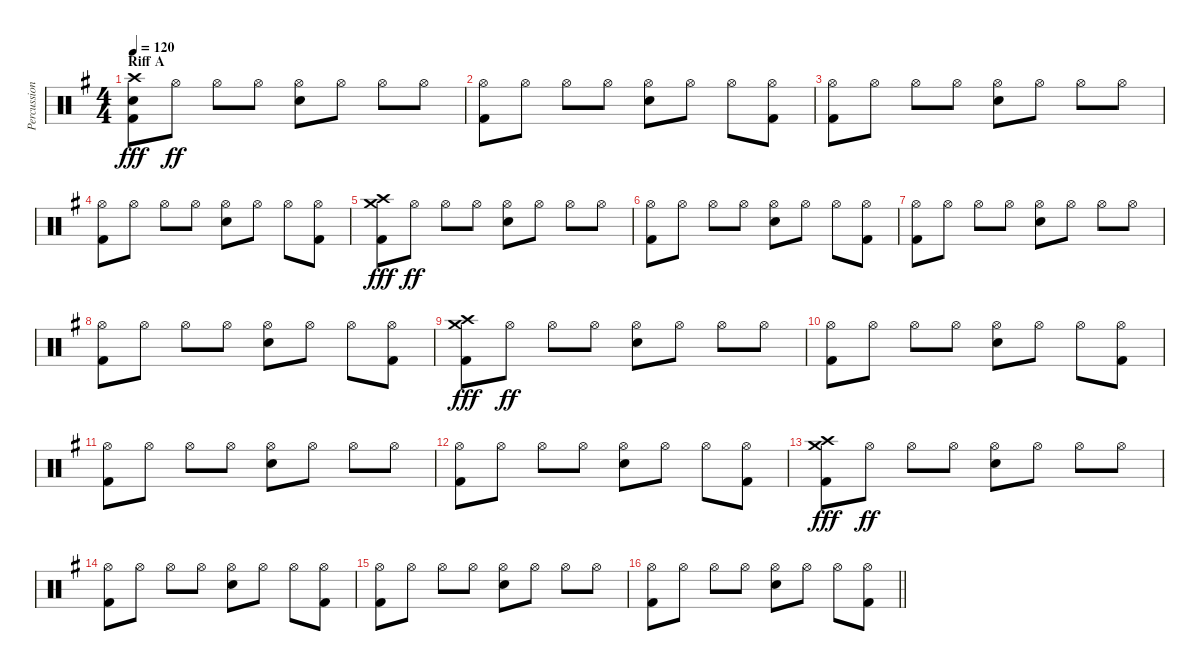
\track ("Percussion" "Percussion") {instrument percussion}
\staff {score}
\articulation defaults
\ts (4 4)
\section ("" "Riff A")
\tempo 120
\clef neutral
\ks eminor
("Kick (hit) 2" "Crash high (hit)" "Snare (hit)").8{dy fff} "Hi-Hat (open)".8{dy ff} "Hi-Hat (open)".8 "Hi-Hat (open)".8 ("Snare (hit) 2" "Hi-Hat (open)").8 "Hi-Hat (open)".8 "Hi-Hat (open)".8 "Hi-Hat (open)".8 |
("Kick (hit) 2" "Hi-Hat (open)").8 "Hi-Hat (open)".8 "Hi-Hat (open)".8 "Hi-Hat (open)".8 ("Snare (hit) 2" "Hi-Hat (open)").8 "Hi-Hat (open)".8 "Hi-Hat (open)".8 ("Kick (hit) 2" "Hi-Hat (open)").8 |
("Kick (hit) 2" "Hi-Hat (open)").8 "Hi-Hat (open)".8 "Hi-Hat (open)".8 "Hi-Hat (open)".8 ("Snare (hit) 2" "Hi-Hat (open)").8 "Hi-Hat (open)".8 "Hi-Hat (open)".8 "Hi-Hat (open)".8 |
("Kick (hit) 2" "Hi-Hat (open)").8 "Hi-Hat (open)".8 "Hi-Hat (open)".8 "Hi-Hat (open)".8 ("Snare (hit) 2" "Hi-Hat (open)").8 "Hi-Hat (open)".8 "Hi-Hat (open)".8 ("Kick (hit) 2" "Hi-Hat (open)").8 |
("Kick (hit) 2" "Crash high (hit)" "Crash medium (hit)").8{dy fff} "Hi-Hat (open)".8{dy ff} "Hi-Hat (open)".8 "Hi-Hat (open)".8 ("Snare (hit) 2" "Hi-Hat (open)").8 "Hi-Hat (open)".8 "Hi-Hat (open)".8 "Hi-Hat (open)".8 |
("Kick (hit) 2" "Hi-Hat (open)").8 "Hi-Hat (open)".8 "Hi-Hat (open)".8 "Hi-Hat (open)".8 ("Snare (hit) 2" "Hi-Hat (open)").8 "Hi-Hat (open)".8 "Hi-Hat (open)".8 ("Kick (hit) 2" "Hi-Hat (open)").8 |
("Kick (hit) 2" "Hi-Hat (open)").8 "Hi-Hat (open)".8 "Hi-Hat (open)".8 "Hi-Hat (open)".8 ("Snare (hit) 2" "Hi-Hat (open)").8 "Hi-Hat (open)".8 "Hi-Hat (open)".8 "Hi-Hat (open)".8 |
("Kick (hit) 2" "Hi-Hat (open)").8 "Hi-Hat (open)".8 "Hi-Hat (open)".8 "Hi-Hat (open)".8 ("Snare (hit) 2" "Hi-Hat (open)").8 "Hi-Hat (open)".8 "Hi-Hat (open)".8 ("Kick (hit) 2" "Hi-Hat (open)").8 |
("Kick (hit) 2" "Crash high (hit)" "Crash medium (hit)").8{dy fff} "Hi-Hat (open)".8{dy ff} "Hi-Hat (open)".8 "Hi-Hat (open)".8 ("Snare (hit) 2" "Hi-Hat (open)").8 "Hi-Hat (open)".8 "Hi-Hat (open)".8 "Hi-Hat (open)".8 |
("Kick (hit) 2" "Hi-Hat (open)").8 "Hi-Hat (open)".8 "Hi-Hat (open)".8 "Hi-Hat (open)".8 ("Snare (hit) 2" "Hi-Hat (open)").8 "Hi-Hat (open)".8 "Hi-Hat (open)".8 ("Kick (hit) 2" "Hi-Hat (open)").8 |
("Kick (hit) 2" "Hi-Hat (open)").8 "Hi-Hat (open)".8 "Hi-Hat (open)".8 "Hi-Hat (open)".8 ("Snare (hit) 2" "Hi-Hat (open)").8 "Hi-Hat (open)".8 "Hi-Hat (open)".8 "Hi-Hat (open)".8 |
("Kick (hit) 2" "Hi-Hat (open)").8 "Hi-Hat (open)".8 "Hi-Hat (open)".8 "Hi-Hat (open)".8 ("Snare (hit) 2" "Hi-Hat (open)").8 "Hi-Hat (open)".8 "Hi-Hat (open)".8 ("Kick (hit) 2" "Hi-Hat (open)").8 |
("Kick (hit) 2" "Crash high (hit)" "Crash medium (hit)").8{dy fff} "Hi-Hat (open)".8{dy ff} "Hi-Hat (open)".8 "Hi-Hat (open)".8 ("Snare (hit) 2" "Hi-Hat (open)").8 "Hi-Hat (open)".8 "Hi-Hat (open)".8 "Hi-Hat (open)".8 |
("Kick (hit) 2" "Hi-Hat (open)").8 "Hi-Hat (open)".8 "Hi-Hat (open)".8 "Hi-Hat (open)".8 ("Snare (hit) 2" "Hi-Hat (open)").8 "Hi-Hat (open)".8 "Hi-Hat (open)".8 ("Kick (hit) 2" "Hi-Hat (open)").8 |
("Kick (hit) 2" "Hi-Hat (open)").8 "Hi-Hat (open)".8 "Hi-Hat (open)".8 "Hi-Hat (open)".8 ("Snare (hit) 2" "Hi-Hat (open)").8 "Hi-Hat (open)".8 "Hi-Hat (open)".8 "Hi-Hat (open)".8 |
\barLineRight lightlight
("Kick (hit) 2" "Hi-Hat (open)").8 "Hi-Hat (open)".8 "Hi-Hat (open)".8 "Hi-Hat (open)".8 ("Snare (hit) 2" "Hi-Hat (open)").8 "Hi-Hat (open)".8 "Hi-Hat (open)".8 ("Kick (hit) 2" "Hi-Hat (open)").8
